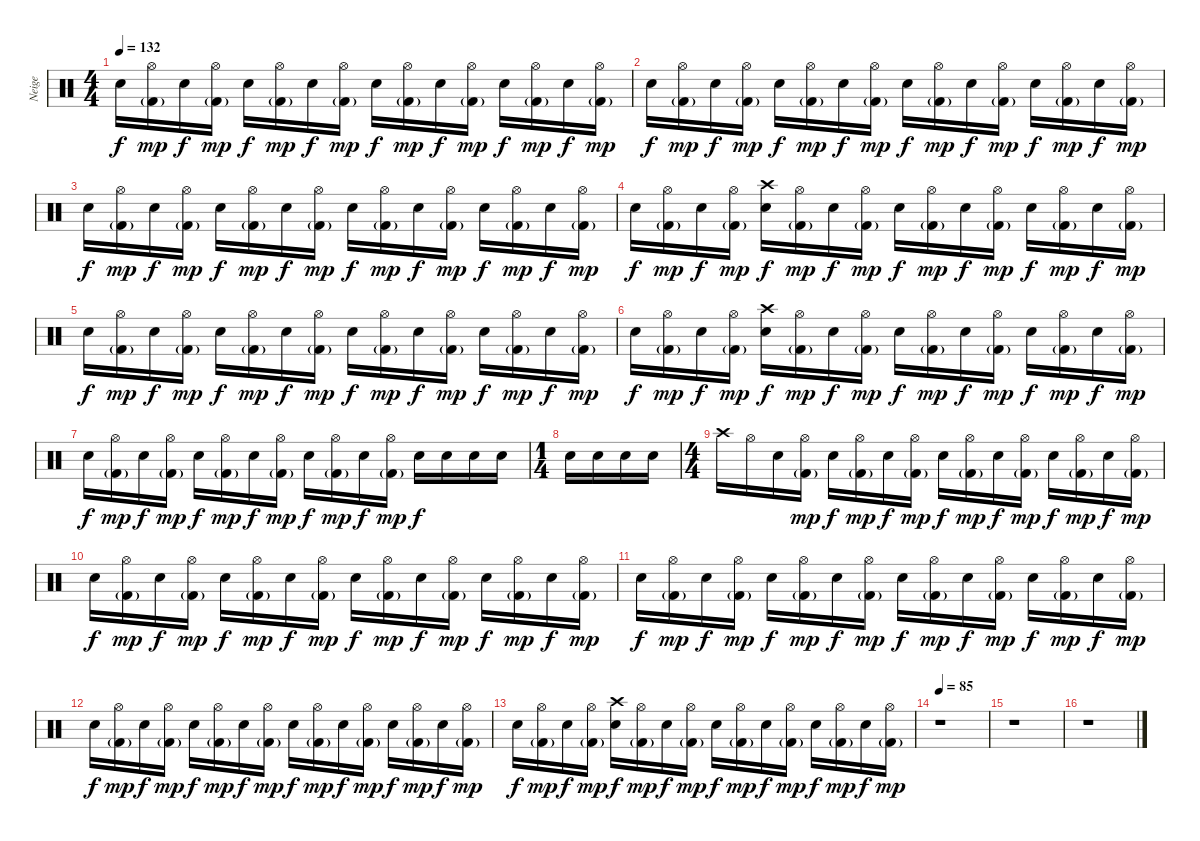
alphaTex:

\track ("Neige" "Neige") {instrument percussion}
\staff {score}
\articulation defaults
\ts (4 4)
\tempo 132
\clef neutral
\ks c "Snare (hit) 2".16{dy f}
("Kick (hit) 2"{g} "Hi-Hat (open)").16{dy mp} "Snare (hit) 2".16{dy f} ("Kick (hit) 2"{g} "Hi-Hat (open)").16{dy mp} "Snare (hit) 2".16{dy f} ("Kick (hit) 2"{g} "Hi-Hat (open)").16{dy mp} "Snare (hit) 2".16{dy f} ("Kick (hit) 2"{g} "Hi-Hat (open)").16{dy mp} "Snare (hit) 2".16{dy f} ("Kick (hit) 2"{g} "Hi-Hat (open)").16{dy mp} "Snare (hit) 2".16{dy f} ("Kick (hit) 2"{g} "Hi-Hat (open)").16{dy mp} "Snare (hit) 2".16{dy f} ("Kick (hit) 2"{g} "Hi-Hat (open)").16{dy mp} "Snare (hit) 2".16{dy f} ("Kick (hit) 2"{g} "Hi-Hat (open)").16{dy mp} |
"Snare (hit) 2".16{dy f} ("Kick (hit) 2"{g} "Hi-Hat (open)").16{dy mp} "Snare (hit) 2".16{dy f} ("Kick (hit) 2"{g} "Hi-Hat (open)").16{dy mp} "Snare (hit) 2".16{dy f} ("Kick (hit) 2"{g} "Hi-Hat (open)").16{dy mp} "Snare (hit) 2".16{dy f} ("Kick (hit) 2"{g} "Hi-Hat (open)").16{dy mp} "Snare (hit) 2".16{dy f} ("Kick (hit) 2"{g} "Hi-Hat (open)").16{dy mp} "Snare (hit) 2".16{dy f} ("Kick (hit) 2"{g} "Hi-Hat (open)").16{dy mp} "Snare (hit) 2".16{dy f} ("Kick (hit) 2"{g} "Hi-Hat (open)").16{dy mp} "Snare (hit) 2".16{dy f} ("Kick (hit) 2"{g} "Hi-Hat (open)").16{dy mp} |
"Snare (hit) 2".16{dy f} ("Kick (hit) 2"{g} "Hi-Hat (open)").16{dy mp} "Snare (hit) 2".16{dy f} ("Kick (hit) 2"{g} "Hi-Hat (open)").16{dy mp} "Snare (hit) 2".16{dy f} ("Kick (hit) 2"{g} "Hi-Hat (open)").16{dy mp} "Snare (hit) 2".16{dy f} ("Kick (hit) 2"{g} "Hi-Hat (open)").16{dy mp} "Snare (hit) 2".16{dy f} ("Kick (hit) 2"{g} "Hi-Hat (open)").16{dy mp} "Snare (hit) 2".16{dy f} ("Kick (hit) 2"{g} "Hi-Hat (open)").16{dy mp} "Snare (hit) 2".16{dy f} ("Kick (hit) 2"{g} "Hi-Hat (open)").16{dy mp} "Snare (hit) 2".16{dy f} ("Kick (hit) 2"{g} "Hi-Hat (open)").16{dy mp} |
"Snare (hit) 2".16{dy f} ("Kick (hit) 2"{g} "Hi-Hat (open)").16{dy mp} "Snare (hit) 2".16{dy f} ("Kick (hit) 2"{g} "Hi-Hat (open)").16{dy mp} ("Snare (hit) 2" "Crash high (hit)").16{dy f} ("Kick (hit) 2"{g} "Hi-Hat (open)").16{dy mp} "Snare (hit) 2".16{dy f} ("Kick (hit) 2"{g} "Hi-Hat (open)").16{dy mp} "Snare (hit) 2".16{dy f} ("Kick (hit) 2"{g} "Hi-Hat (open)").16{dy mp} "Snare (hit) 2".16{dy f} ("Kick (hit) 2"{g} "Hi-Hat (open)").16{dy mp} "Snare (hit) 2".16{dy f} ("Kick (hit) 2"{g} "Hi-Hat (open)").16{dy mp} "Snare (hit) 2".16{dy f} ("Kick (hit) 2"{g} "Hi-Hat (open)").16{dy mp} |
"Snare (hit) 2".16{dy f} ("Kick (hit) 2"{g} "Hi-Hat (open)").16{dy mp} "Snare (hit) 2".16{dy f} ("Kick (hit) 2"{g} "Hi-Hat (open)").16{dy mp} "Snare (hit) 2".16{dy f} ("Kick (hit) 2"{g} "Hi-Hat (open)").16{dy mp} "Snare (hit) 2".16{dy f} ("Kick (hit) 2"{g} "Hi-Hat (open)").16{dy mp} "Snare (hit) 2".16{dy f} ("Kick (hit) 2"{g} "Hi-Hat (open)").16{dy mp} "Snare (hit) 2".16{dy f} ("Kick (hit) 2"{g} "Hi-Hat (open)").16{dy mp} "Snare (hit) 2".16{dy f} ("Kick (hit) 2"{g} "Hi-Hat (open)").16{dy mp} "Snare (hit) 2".16{dy f} ("Kick (hit) 2"{g} "Hi-Hat (open)").16{dy mp} |
"Snare (hit) 2".16{dy f} ("Kick (hit) 2"{g} "Hi-Hat (open)").16{dy mp} "Snare (hit) 2".16{dy f} ("Kick (hit) 2"{g} "Hi-Hat (open)").16{dy mp} ("Snare (hit) 2" "Crash high (hit)").16{dy f} ("Kick (hit) 2"{g} "Hi-Hat (open)").16{dy mp} "Snare (hit) 2".16{dy f} ("Kick (hit) 2"{g} "Hi-Hat (open)").16{dy mp} "Snare (hit) 2".16{dy f} ("Kick (hit) 2"{g} "Hi-Hat (open)").16{dy mp} "Snare (hit) 2".16{dy f} ("Kick (hit) 2"{g} "Hi-Hat (open)").16{dy mp} "Snare (hit) 2".16{dy f} ("Kick (hit) 2"{g} "Hi-Hat (open)").16{dy mp} "Snare (hit) 2".16{dy f} ("Kick (hit) 2"{g} "Hi-Hat (open)").16{dy mp} |
"Snare (hit) 2".16{dy f} ("Kick (hit) 2"{g} "Hi-Hat (open)").16{dy mp} "Snare (hit) 2".16{dy f} ("Kick (hit) 2"{g} "Hi-Hat (open)").16{dy mp} "Snare (hit) 2".16{dy f} ("Kick (hit) 2"{g} "Hi-Hat (open)").16{dy mp} "Snare (hit) 2".16{dy f} ("Kick (hit) 2"{g} "Hi-Hat (open)").16{dy mp} "Snare (hit) 2".16{dy f} ("Kick (hit) 2"{g} "Hi-Hat (open)").16{dy mp} "Snare (hit) 2".16{dy f} ("Kick (hit) 2"{g} "Hi-Hat (open)").16{dy mp} "Snare (hit) 2".16{dy f} "Snare (hit) 2".16 "Snare (hit) 2".16 "Snare (hit) 2".16 |
\ts (1 4)
"Snare (hit) 2".16 "Snare (hit) 2".16 "Snare (hit) 2".16 "Snare (hit) 2".16 |
\ts (4 4)
"Crash high (hit)".16 "Hi-Hat (open)".16 "Snare (hit) 2".16 ("Kick (hit) 2"{g} "Hi-Hat (open)").16{dy mp} "Snare (hit) 2".16{dy f} ("Kick (hit) 2"{g} "Hi-Hat (open)").16{dy mp} "Snare (hit) 2".16{dy f} ("Kick (hit) 2"{g} "Hi-Hat (open)").16{dy mp} "Snare (hit) 2".16{dy f} ("Kick (hit) 2"{g} "Hi-Hat (open)").16{dy mp} "Snare (hit) 2".16{dy f} ("Kick (hit) 2"{g} "Hi-Hat (open)").16{dy mp} "Snare (hit) 2".16{dy f} ("Kick (hit) 2"{g} "Hi-Hat (open)").16{dy mp} "Snare (hit) 2".16{dy f} ("Kick (hit) 2"{g} "Hi-Hat (open)").16{dy mp} |
"Snare (hit) 2".16{dy f} ("Kick (hit) 2"{g} "Hi-Hat (open)").16{dy mp} "Snare (hit) 2".16{dy f} ("Kick (hit) 2"{g} "Hi-Hat (open)").16{dy mp} "Snare (hit) 2".16{dy f} ("Kick (hit) 2"{g} "Hi-Hat (open)").16{dy mp} "Snare (hit) 2".16{dy f} ("Kick (hit) 2"{g} "Hi-Hat (open)").16{dy mp} "Snare (hit) 2".16{dy f} ("Kick (hit) 2"{g} "Hi-Hat (open)").16{dy mp} "Snare (hit) 2".16{dy f} ("Kick (hit) 2"{g} "Hi-Hat (open)").16{dy mp} "Snare (hit) 2".16{dy f} ("Kick (hit) 2"{g} "Hi-Hat (open)").16{dy mp} "Snare (hit) 2".16{dy f} ("Kick (hit) 2"{g} "Hi-Hat (open)").16{dy mp} |
"Snare (hit) 2".16{dy f} ("Kick (hit) 2"{g} "Hi-Hat (open)").16{dy mp} "Snare (hit) 2".16{dy f} ("Kick (hit) 2"{g} "Hi-Hat (open)").16{dy mp} "Snare (hit) 2".16{dy f} ("Kick (hit) 2"{g} "Hi-Hat (open)").16{dy mp} "Snare (hit) 2".16{dy f} ("Kick (hit) 2"{g} "Hi-Hat (open)").16{dy mp} "Snare (hit) 2".16{dy f} ("Kick (hit) 2"{g} "Hi-Hat (open)").16{dy mp} "Snare (hit) 2".16{dy f} ("Kick (hit) 2"{g} "Hi-Hat (open)").16{dy mp} "Snare (hit) 2".16{dy f} ("Kick (hit) 2"{g} "Hi-Hat (open)").16{dy mp} "Snare (hit) 2".16{dy f} ("Kick (hit) 2"{g} "Hi-Hat (open)").16{dy mp} |
"Snare (hit) 2".16{dy f volume 2} ("Kick (hit) 2"{g} "Hi-Hat (open)").16{dy mp} "Snare (hit) 2".16{dy f} ("Kick (hit) 2"{g} "Hi-Hat (open)").16{dy mp} "Snare (hit) 2".16{dy f} ("Kick (hit) 2"{g} "Hi-Hat (open)").16{dy mp} "Snare (hit) 2".16{dy f} ("Kick (hit) 2"{g} "Hi-Hat (open)").16{dy mp} "Snare (hit) 2".16{dy f} ("Kick (hit) 2"{g} "Hi-Hat (open)").16{dy mp} "Snare (hit) 2".16{dy f} ("Kick (hit) 2"{g} "Hi-Hat (open)").16{dy mp} "Snare (hit) 2".16{dy f} ("Kick (hit) 2"{g} "Hi-Hat (open)").16{dy mp} "Snare (hit) 2".16{dy f} ("Kick (hit) 2"{g} "Hi-Hat (open)").16{dy mp} |
"Snare (hit) 2".16{dy f} ("Kick (hit) 2"{g} "Hi-Hat (open)").16{dy mp} "Snare (hit) 2".16{dy f} ("Kick (hit) 2"{g} "Hi-Hat (open)").16{dy mp} ("Snare (hit) 2" "Crash high (hit)").16{dy f} ("Kick (hit) 2"{g} "Hi-Hat (open)").16{dy mp} "Snare (hit) 2".16{dy f} ("Kick (hit) 2"{g} "Hi-Hat (open)").16{dy mp} "Snare (hit) 2".16{dy f} ("Kick (hit) 2"{g} "Hi-Hat (open)").16{dy mp} "Snare (hit) 2".16{dy f} ("Kick (hit) 2"{g} "Hi-Hat (open)").16{dy mp} "Snare (hit) 2".16{dy f} ("Kick (hit) 2"{g} "Hi-Hat (open)").16{dy mp} "Snare (hit) 2".16{dy f} ("Kick (hit) 2"{g} "Hi-Hat (open)").16{dy mp} |
\tempo 85
r.1 |
r.1 |
r.1
